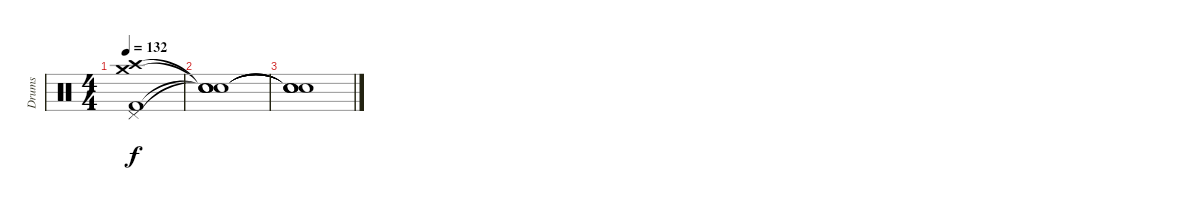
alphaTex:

\track ("Drums" "Drums") {instrument percussion}
\staff {score}
\articulation defaults
\ts (4 4)
\tempo 132
\clef neutral
\ks c
("Crash medium (hit)" "Crash high (hit)" "Pedal Hi-Hat (hit)" "Kick (hit) 2").1{dy f} |
("Snare (hit)"{t} "Snare (hit)"{t} "Snare (hit)"{t} "Snare (hit)"{t}).1 |
("Snare (hit)"{t} "Snare (hit)"{t} "Snare (hit)"{t} "Snare (hit)"{t}).1
